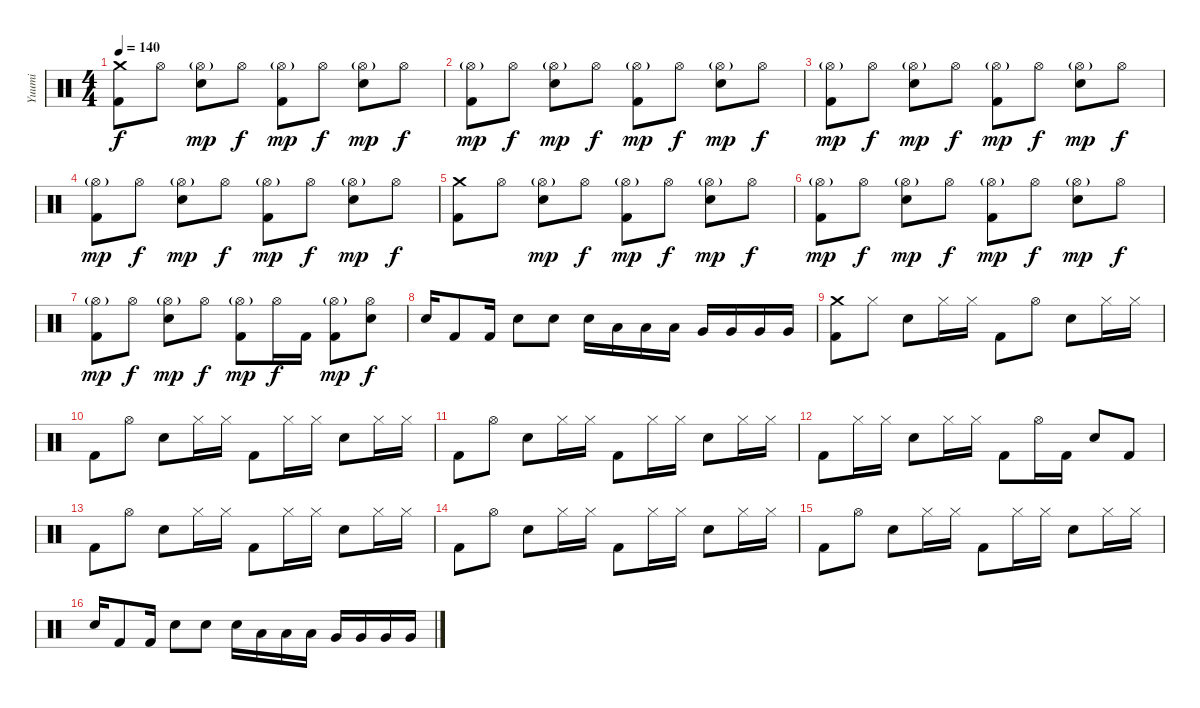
\track ("Yuumi" "Yuumi") {instrument percussion}
\staff {score}
\articulation defaults
\ts (4 4)
\tempo 140
\clef neutral
\ks c
("Crash medium (hit)" "Kick (hit) 2").8{dy f} "Hi-Hat (open)".8 ("Hi-Hat (open)"{g} "Electric Snare (hit)").8{dy mp} "Hi-Hat (open)".8{dy f} ("Hi-Hat (open)"{g} "Kick (hit) 2").8{dy mp} "Hi-Hat (open)".8{dy f} ("Hi-Hat (open)"{g} "Electric Snare (hit)").8{dy mp} "Hi-Hat (open)".8{dy f} |
("Hi-Hat (open)"{g} "Kick (hit) 2").8{dy mp} "Hi-Hat (open)".8{dy f} ("Hi-Hat (open)"{g} "Electric Snare (hit)").8{dy mp} "Hi-Hat (open)".8{dy f} ("Hi-Hat (open)"{g} "Kick (hit) 2").8{dy mp} "Hi-Hat (open)".8{dy f} ("Hi-Hat (open)"{g} "Electric Snare (hit)").8{dy mp} "Hi-Hat (open)".8{dy f} |
("Hi-Hat (open)"{g} "Kick (hit) 2").8{dy mp} "Hi-Hat (open)".8{dy f} ("Hi-Hat (open)"{g} "Electric Snare (hit)").8{dy mp} "Hi-Hat (open)".8{dy f} ("Hi-Hat (open)"{g} "Kick (hit) 2").8{dy mp} "Hi-Hat (open)".8{dy f} ("Hi-Hat (open)"{g} "Electric Snare (hit)").8{dy mp} "Hi-Hat (open)".8{dy f} |
("Hi-Hat (open)"{g} "Kick (hit) 2").8{dy mp} "Hi-Hat (open)".8{dy f} ("Hi-Hat (open)"{g} "Electric Snare (hit)").8{dy mp} "Hi-Hat (open)".8{dy f} ("Hi-Hat (open)"{g} "Kick (hit) 2").8{dy mp} "Hi-Hat (open)".8{dy f} ("Hi-Hat (open)"{g} "Electric Snare (hit)").8{dy mp} "Hi-Hat (open)".8{dy f} |
("Crash medium (hit)" "Kick (hit) 2").8 "Hi-Hat (open)".8 ("Hi-Hat (open)"{g} "Electric Snare (hit)").8{dy mp} "Hi-Hat (open)".8{dy f} ("Hi-Hat (open)"{g} "Kick (hit) 2").8{dy mp} "Hi-Hat (open)".8{dy f} ("Hi-Hat (open)"{g} "Electric Snare (hit)").8{dy mp} "Hi-Hat (open)".8{dy f} |
("Hi-Hat (open)"{g} "Kick (hit) 2").8{dy mp} "Hi-Hat (open)".8{dy f} ("Hi-Hat (open)"{g} "Electric Snare (hit)").8{dy mp} "Hi-Hat (open)".8{dy f} ("Hi-Hat (open)"{g} "Kick (hit) 2").8{dy mp} "Hi-Hat (open)".8{dy f} ("Hi-Hat (open)"{g} "Electric Snare (hit)").8{dy mp} "Hi-Hat (open)".8{dy f} |
("Hi-Hat (open)"{g} "Kick (hit) 2").8{dy mp} "Hi-Hat (open)".8{dy f} ("Hi-Hat (open)"{g} "Electric Snare (hit)").8{dy mp} "Hi-Hat (open)".8{dy f} ("Hi-Hat (open)"{g} "Kick (hit) 2").8{dy mp} "Hi-Hat (open)".16{dy f} "Kick (hit) 2".16 ("Hi-Hat (open)"{g} "Kick (hit) 2").8{dy mp} ("Hi-Hat (open)" "Electric Snare (hit)").8{dy f} |
"Electric Snare (hit)".16 "Kick (hit) 2".8 "Kick (hit) 2".16 "Electric Snare (hit)".8 "Electric Snare (hit)".8 "Electric Snare (hit)".16 "Low Tom (hit)".16 "Low Tom (hit)".16 "Low Tom (hit)".16 "Very Low Tom (hit)".16 "Very Low Tom (hit)".16 "Very Low Tom (hit)".16 "Very Low Tom (hit)".16 |
("Crash medium (hit)" "Kick (hit) 2").8 "Hi-Hat (closed)".8 "Electric Snare (hit)".8 "Hi-Hat (closed)".16 "Hi-Hat (closed)".16 "Kick (hit) 2".8 "Hi-Hat (open)".8 "Electric Snare (hit)".8 "Hi-Hat (closed)".16 "Hi-Hat (closed)".16 |
"Kick (hit) 2".8 "Hi-Hat (open)".8 "Electric Snare (hit)".8 "Hi-Hat (closed)".16 "Hi-Hat (closed)".16 "Kick (hit) 2".8 "Hi-Hat (closed)".16 "Hi-Hat (closed)".16 "Electric Snare (hit)".8 "Hi-Hat (closed)".16 "Hi-Hat (closed)".16 |
"Kick (hit) 2".8 "Hi-Hat (open)".8 "Electric Snare (hit)".8 "Hi-Hat (closed)".16 "Hi-Hat (closed)".16 "Kick (hit) 2".8 "Hi-Hat (closed)".16 "Hi-Hat (closed)".16 "Electric Snare (hit)".8 "Hi-Hat (closed)".16 "Hi-Hat (closed)".16 |
"Kick (hit) 2".8 "Hi-Hat (closed)".16 "Hi-Hat (closed)".16 "Electric Snare (hit)".8 "Hi-Hat (closed)".16 "Hi-Hat (closed)".16 "Kick (hit) 2".8 "Hi-Hat (open)".16 "Kick (hit) 2".16 "Electric Snare (hit)".8 "Kick (hit) 2".8 |
"Kick (hit) 2".8 "Hi-Hat (open)".8 "Electric Snare (hit)".8 "Hi-Hat (closed)".16 "Hi-Hat (closed)".16 "Kick (hit) 2".8 "Hi-Hat (closed)".16 "Hi-Hat (closed)".16 "Electric Snare (hit)".8 "Hi-Hat (closed)".16 "Hi-Hat (closed)".16 |
"Kick (hit) 2".8 "Hi-Hat (open)".8 "Electric Snare (hit)".8 "Hi-Hat (closed)".16 "Hi-Hat (closed)".16 "Kick (hit) 2".8 "Hi-Hat (closed)".16 "Hi-Hat (closed)".16 "Electric Snare (hit)".8 "Hi-Hat (closed)".16 "Hi-Hat (closed)".16 |
"Kick (hit) 2".8 "Hi-Hat (open)".8 "Electric Snare (hit)".8 "Hi-Hat (closed)".16 "Hi-Hat (closed)".16 "Kick (hit) 2".8 "Hi-Hat (closed)".16 "Hi-Hat (closed)".16 "Electric Snare (hit)".8 "Hi-Hat (closed)".16 "Hi-Hat (closed)".16 |
"Electric Snare (hit)".16 "Kick (hit) 2".8 "Kick (hit) 2".16 "Electric Snare (hit)".8 "Electric Snare (hit)".8 "Electric Snare (hit)".16 "Low Tom (hit)".16 "Low Tom (hit)".16 "Low Tom (hit)".16 "Very Low Tom (hit)".16 "Very Low Tom (hit)".16 "Very Low Tom (hit)".16 "Very Low Tom (hit)".16
